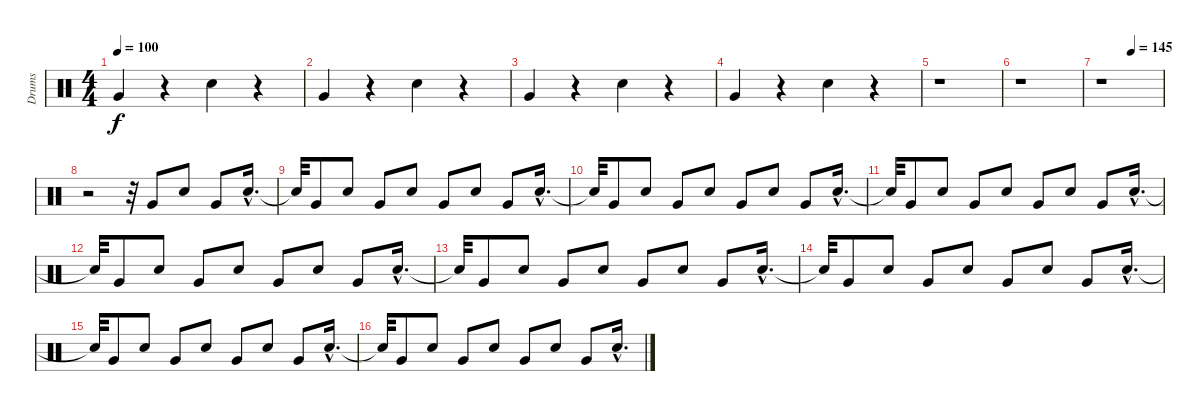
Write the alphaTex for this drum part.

\track ("Drums" "Drums") {instrument percussion}
\staff {score}
\articulation defaults
\ts (4 4)
\tempo 100
\clef neutral
\ks c "Very Low Tom (hit)".4{dy f}
r.4 "Snare (hit) 2".4 r.4 |
"Very Low Tom (hit)".4 r.4 "Snare (hit) 2".4 r.4 |
"Very Low Tom (hit)".4 r.4 "Snare (hit) 2".4 r.4 |
"Very Low Tom (hit)".4 r.4 "Snare (hit) 2".4 r.4 |
r.1 |
r.1 |
\tempo (145 0.5)
r.1 |
r.2 r.32 "Very Low Tom (hit)".8 "Snare (hit) 2".8 "Very Low Tom (hit)".8 "Snare (hit) 2"{hac}.16{d} |
"Snare (hit)"{t}.32 "Very Low Tom (hit)".8 "Snare (hit) 2".8 "Very Low Tom (hit)".8 "Snare (hit) 2".8 "Very Low Tom (hit)".8 "Snare (hit) 2".8 "Very Low Tom (hit)".8 "Snare (hit) 2"{hac}.16{d} |
"Snare (hit)"{t}.32 "Very Low Tom (hit)".8 "Snare (hit) 2".8 "Very Low Tom (hit)".8 "Snare (hit) 2".8 "Very Low Tom (hit)".8 "Snare (hit) 2".8 "Very Low Tom (hit)".8 "Snare (hit) 2"{hac}.16{d} |
"Snare (hit)"{t}.32 "Very Low Tom (hit)".8 "Snare (hit) 2".8 "Very Low Tom (hit)".8 "Snare (hit) 2".8 "Very Low Tom (hit)".8 "Snare (hit) 2".8 "Very Low Tom (hit)".8 "Snare (hit) 2"{hac}.16{d} |
"Snare (hit)"{t}.32 "Very Low Tom (hit)".8 "Snare (hit) 2".8 "Very Low Tom (hit)".8 "Snare (hit) 2".8 "Very Low Tom (hit)".8 "Snare (hit) 2".8 "Very Low Tom (hit)".8 "Snare (hit) 2"{hac}.16{d} |
"Snare (hit)"{t}.32 "Very Low Tom (hit)".8 "Snare (hit) 2".8 "Very Low Tom (hit)".8 "Snare (hit) 2".8 "Very Low Tom (hit)".8 "Snare (hit) 2".8 "Very Low Tom (hit)".8 "Snare (hit) 2"{hac}.16{d} |
"Snare (hit)"{t}.32 "Very Low Tom (hit)".8 "Snare (hit) 2".8 "Very Low Tom (hit)".8 "Snare (hit) 2".8 "Very Low Tom (hit)".8 "Snare (hit) 2".8 "Very Low Tom (hit)".8 "Snare (hit) 2"{hac}.16{d} |
"Snare (hit)"{t}.32 "Very Low Tom (hit)".8 "Snare (hit) 2".8 "Very Low Tom (hit)".8 "Snare (hit) 2".8 "Very Low Tom (hit)".8 "Snare (hit) 2".8 "Very Low Tom (hit)".8 "Snare (hit) 2"{hac}.16{d} |
"Snare (hit)"{t}.32 "Very Low Tom (hit)".8 "Snare (hit) 2".8 "Very Low Tom (hit)".8 "Snare (hit) 2".8 "Very Low Tom (hit)".8 "Snare (hit) 2".8 "Very Low Tom (hit)".8 "Snare (hit) 2"{hac}.16{d}
